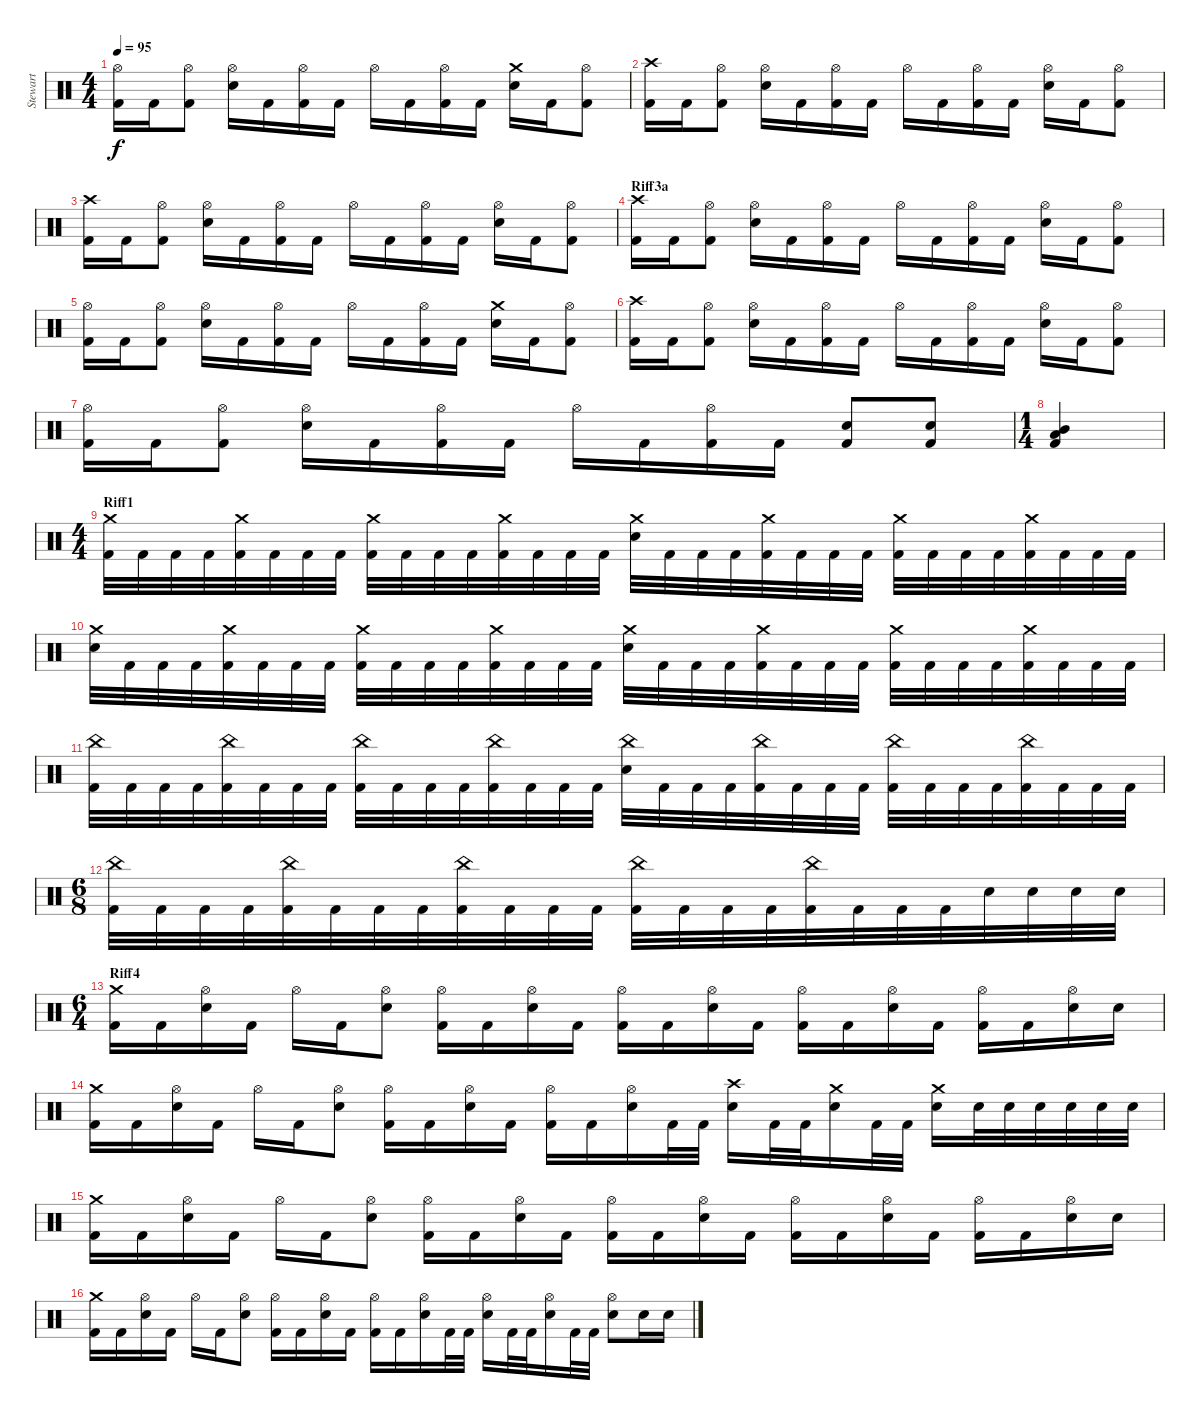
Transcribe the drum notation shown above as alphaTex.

\track ("Stewart" "Stewart") {instrument percussion}
\staff {score}
\articulation defaults
\ts (4 4)
\tempo 95
\clef neutral
\ks c
("Hi-Hat (open)" "Kick (hit) 2").16{dy f} "Kick (hit) 2".16 ("Hi-Hat (open)" "Kick (hit) 2").8 ("Hi-Hat (open)" "Electric Snare (hit)").16 "Kick (hit) 2".16 ("Hi-Hat (open)" "Kick (hit) 2").16 "Kick (hit) 2".16 "Hi-Hat (open)".16 "Kick (hit) 2".16 ("Hi-Hat (open)" "Kick (hit) 2").16 "Kick (hit) 2".16 ("Crash medium (hit)" "Electric Snare (hit)").16 "Kick (hit) 2".16 ("Hi-Hat (open)" "Kick (hit) 2").8 |
("Crash high (hit)" "Kick (hit) 2").16 "Kick (hit) 2".16 ("Hi-Hat (open)" "Kick (hit) 2").8 ("Hi-Hat (open)" "Electric Snare (hit)").16 "Kick (hit) 2".16 ("Hi-Hat (open)" "Kick (hit) 2").16 "Kick (hit) 2".16 "Hi-Hat (open)".16 "Kick (hit) 2".16 ("Hi-Hat (open)" "Kick (hit) 2").16 "Kick (hit) 2".16 ("Hi-Hat (open)" "Electric Snare (hit)").16 "Kick (hit) 2".16 ("Hi-Hat (open)" "Kick (hit) 2").8 |
("Crash high (hit)" "Kick (hit) 2").16 "Kick (hit) 2".16 ("Hi-Hat (open)" "Kick (hit) 2").8 ("Hi-Hat (open)" "Electric Snare (hit)").16 "Kick (hit) 2".16 ("Hi-Hat (open)" "Kick (hit) 2").16 "Kick (hit) 2".16 "Hi-Hat (open)".16 "Kick (hit) 2".16 ("Hi-Hat (open)" "Kick (hit) 2").16 "Kick (hit) 2".16 ("Hi-Hat (open)" "Electric Snare (hit)").16 "Kick (hit) 2".16 ("Hi-Hat (open)" "Kick (hit) 2").8 |
\section ("" "Riff3a")
("Crash high (hit)" "Kick (hit) 2").16 "Kick (hit) 2".16 ("Hi-Hat (open)" "Kick (hit) 2").8 ("Hi-Hat (open)" "Electric Snare (hit)").16 "Kick (hit) 2".16 ("Hi-Hat (open)" "Kick (hit) 2").16 "Kick (hit) 2".16 "Hi-Hat (open)".16 "Kick (hit) 2".16 ("Hi-Hat (open)" "Kick (hit) 2").16 "Kick (hit) 2".16 ("Hi-Hat (open)" "Electric Snare (hit)").16 "Kick (hit) 2".16 ("Hi-Hat (open)" "Kick (hit) 2").8 |
("Hi-Hat (open)" "Kick (hit) 2").16 "Kick (hit) 2".16 ("Hi-Hat (open)" "Kick (hit) 2").8 ("Hi-Hat (open)" "Electric Snare (hit)").16 "Kick (hit) 2".16 ("Hi-Hat (open)" "Kick (hit) 2").16 "Kick (hit) 2".16 "Hi-Hat (open)".16 "Kick (hit) 2".16 ("Hi-Hat (open)" "Kick (hit) 2").16 "Kick (hit) 2".16 ("Crash medium (hit)" "Electric Snare (hit)").16 "Kick (hit) 2".16 ("Hi-Hat (open)" "Kick (hit) 2").8 |
("Crash high (hit)" "Kick (hit) 2").16 "Kick (hit) 2".16 ("Hi-Hat (open)" "Kick (hit) 2").8 ("Hi-Hat (open)" "Electric Snare (hit)").16 "Kick (hit) 2".16 ("Hi-Hat (open)" "Kick (hit) 2").16 "Kick (hit) 2".16 "Hi-Hat (open)".16 "Kick (hit) 2".16 ("Hi-Hat (open)" "Kick (hit) 2").16 "Kick (hit) 2".16 ("Hi-Hat (open)" "Electric Snare (hit)").16 "Kick (hit) 2".16 ("Hi-Hat (open)" "Kick (hit) 2").8 |
("Hi-Hat (open)" "Kick (hit) 2").16 "Kick (hit) 2".16 ("Hi-Hat (open)" "Kick (hit) 2").8 ("Hi-Hat (open)" "Electric Snare (hit)").16 "Kick (hit) 2".16 ("Hi-Hat (open)" "Kick (hit) 2").16 "Kick (hit) 2".16 "Hi-Hat (open)".16 "Kick (hit) 2".16 ("Hi-Hat (open)" "Kick (hit) 2").16 "Kick (hit) 2".16 ("Electric Snare (hit)" "Kick (hit) 2").8 ("Electric Snare (hit)" "Kick (hit) 2").8 |
\ts (1 4)
("Mid Tom (hit)" "Low Tom (hit)" "Kick (hit) 2").4 |
\ts (4 4)
\section ("" "Riff1")
("Crash medium (hit)" "Kick (hit) 2").32 "Kick (hit) 2".32 "Kick (hit) 2".32 "Kick (hit) 2".32 ("Crash medium (hit)" "Kick (hit) 2").32 "Kick (hit) 2".32 "Kick (hit) 2".32 "Kick (hit) 2".32 ("Crash medium (hit)" "Kick (hit) 2").32 "Kick (hit) 2".32 "Kick (hit) 2".32 "Kick (hit) 2".32 ("Crash medium (hit)" "Kick (hit) 2").32 "Kick (hit) 2".32 "Kick (hit) 2".32 "Kick (hit) 2".32 ("Crash medium (hit)" "Electric Snare (hit)").32 "Kick (hit) 2".32 "Kick (hit) 2".32 "Kick (hit) 2".32 ("Crash medium (hit)" "Kick (hit) 2").32 "Kick (hit) 2".32 "Kick (hit) 2".32 "Kick (hit) 2".32 ("Crash medium (hit)" "Kick (hit) 2").32 "Kick (hit) 2".32 "Kick (hit) 2".32 "Kick (hit) 2".32 ("Crash medium (hit)" "Kick (hit) 2").32 "Kick (hit) 2".32 "Kick (hit) 2".32 "Kick (hit) 2".32 |
("Crash medium (hit)" "Electric Snare (hit)").32 "Kick (hit) 2".32 "Kick (hit) 2".32 "Kick (hit) 2".32 ("Crash medium (hit)" "Kick (hit) 2").32 "Kick (hit) 2".32 "Kick (hit) 2".32 "Kick (hit) 2".32 ("Crash medium (hit)" "Kick (hit) 2").32 "Kick (hit) 2".32 "Kick (hit) 2".32 "Kick (hit) 2".32 ("Crash medium (hit)" "Kick (hit) 2").32 "Kick (hit) 2".32 "Kick (hit) 2".32 "Kick (hit) 2".32 ("Crash medium (hit)" "Electric Snare (hit)").32 "Kick (hit) 2".32 "Kick (hit) 2".32 "Kick (hit) 2".32 ("Crash medium (hit)" "Kick (hit) 2").32 "Kick (hit) 2".32 "Kick (hit) 2".32 "Kick (hit) 2".32 ("Crash medium (hit)" "Kick (hit) 2").32 "Kick (hit) 2".32 "Kick (hit) 2".32 "Kick (hit) 2".32 ("Crash medium (hit)" "Kick (hit) 2").32 "Kick (hit) 2".32 "Kick (hit) 2".32 "Kick (hit) 2".32 |
("China (hit)" "Kick (hit) 2").32 "Kick (hit) 2".32 "Kick (hit) 2".32 "Kick (hit) 2".32 ("China (hit)" "Kick (hit) 2").32 "Kick (hit) 2".32 "Kick (hit) 2".32 "Kick (hit) 2".32 ("China (hit)" "Kick (hit) 2").32 "Kick (hit) 2".32 "Kick (hit) 2".32 "Kick (hit) 2".32 ("China (hit)" "Kick (hit) 2").32 "Kick (hit) 2".32 "Kick (hit) 2".32 "Kick (hit) 2".32 ("China (hit)" "Electric Snare (hit)").32 "Kick (hit) 2".32 "Kick (hit) 2".32 "Kick (hit) 2".32 ("China (hit)" "Kick (hit) 2").32 "Kick (hit) 2".32 "Kick (hit) 2".32 "Kick (hit) 2".32 ("China (hit)" "Kick (hit) 2").32 "Kick (hit) 2".32 "Kick (hit) 2".32 "Kick (hit) 2".32 ("China (hit)" "Kick (hit) 2").32 "Kick (hit) 2".32 "Kick (hit) 2".32 "Kick (hit) 2".32 |
\ts (6 8)
("China (hit)" "Kick (hit) 2").32 "Kick (hit) 2".32 "Kick (hit) 2".32 "Kick (hit) 2".32 ("China (hit)" "Kick (hit) 2").32 "Kick (hit) 2".32 "Kick (hit) 2".32 "Kick (hit) 2".32 ("China (hit)" "Kick (hit) 2").32 "Kick (hit) 2".32 "Kick (hit) 2".32 "Kick (hit) 2".32 ("China (hit)" "Kick (hit) 2").32 "Kick (hit) 2".32 "Kick (hit) 2".32 "Kick (hit) 2".32 ("China (hit)" "Kick (hit) 2").32 "Kick (hit) 2".32 "Kick (hit) 2".32 "Kick (hit) 2".32 "Electric Snare (hit)".32 "Electric Snare (hit)".32 "Electric Snare (hit)".32 "Electric Snare (hit)".32 |
\ts (6 4)
\section ("" "Riff4")
("Crash medium (hit)" "Kick (hit) 2").16 "Kick (hit) 2".16 ("Hi-Hat (open)" "Electric Snare (hit)").16 "Kick (hit) 2".16 "Hi-Hat (open)".16 "Kick (hit) 2".16 ("Hi-Hat (open)" "Electric Snare (hit)").8 ("Hi-Hat (open)" "Kick (hit) 2").16 "Kick (hit) 2".16 ("Hi-Hat (open)" "Electric Snare (hit)").16 "Kick (hit) 2".16 ("Hi-Hat (open)" "Kick (hit) 2").16 "Kick (hit) 2".16 ("Hi-Hat (open)" "Electric Snare (hit)").16 "Kick (hit) 2".16 ("Hi-Hat (open)" "Kick (hit) 2").16 "Kick (hit) 2".16 ("Hi-Hat (open)" "Electric Snare (hit)").16 "Kick (hit) 2".16 ("Hi-Hat (open)" "Kick (hit) 2").16 "Kick (hit) 2".16 ("Hi-Hat (open)" "Electric Snare (hit)").16 "Electric Snare (hit)".16 |
("Crash medium (hit)" "Kick (hit) 2").16 "Kick (hit) 2".16 ("Hi-Hat (open)" "Electric Snare (hit)").16 "Kick (hit) 2".16 "Hi-Hat (open)".16 "Kick (hit) 2".16 ("Hi-Hat (open)" "Electric Snare (hit)").8 ("Hi-Hat (open)" "Kick (hit) 2").16 "Kick (hit) 2".16 ("Hi-Hat (open)" "Electric Snare (hit)").16 "Kick (hit) 2".16 ("Hi-Hat (open)" "Kick (hit) 2").16 "Kick (hit) 2".16 ("Hi-Hat (open)" "Electric Snare (hit)").16 "Kick (hit) 2".32 "Kick (hit) 2".32 ("Crash high (hit)" "Electric Snare (hit)").16 "Kick (hit) 2".32 "Kick (hit) 2".32 ("Crash medium (hit)" "Electric Snare (hit)").16 "Kick (hit) 2".32 "Kick (hit) 2".32 ("Crash medium (hit)" "Electric Snare (hit)").16 "Electric Snare (hit)".32 "Electric Snare (hit)".32 "Electric Snare (hit)".32 "Electric Snare (hit)".32 "Electric Snare (hit)".32 "Electric Snare (hit)".32 |
("Crash medium (hit)" "Kick (hit) 2").16 "Kick (hit) 2".16 ("Hi-Hat (open)" "Electric Snare (hit)").16 "Kick (hit) 2".16 "Hi-Hat (open)".16 "Kick (hit) 2".16 ("Hi-Hat (open)" "Electric Snare (hit)").8 ("Hi-Hat (open)" "Kick (hit) 2").16 "Kick (hit) 2".16 ("Hi-Hat (open)" "Electric Snare (hit)").16 "Kick (hit) 2".16 ("Hi-Hat (open)" "Kick (hit) 2").16 "Kick (hit) 2".16 ("Hi-Hat (open)" "Electric Snare (hit)").16 "Kick (hit) 2".16 ("Hi-Hat (open)" "Kick (hit) 2").16 "Kick (hit) 2".16 ("Hi-Hat (open)" "Electric Snare (hit)").16 "Kick (hit) 2".16 ("Hi-Hat (open)" "Kick (hit) 2").16 "Kick (hit) 2".16 ("Hi-Hat (open)" "Electric Snare (hit)").16 "Electric Snare (hit)".16 |
("Crash medium (hit)" "Kick (hit) 2").16 "Kick (hit) 2".16 ("Hi-Hat (open)" "Electric Snare (hit)").16 "Kick (hit) 2".16 "Hi-Hat (open)".16 "Kick (hit) 2".16 ("Hi-Hat (open)" "Electric Snare (hit)").8 ("Hi-Hat (open)" "Kick (hit) 2").16 "Kick (hit) 2".16 ("Hi-Hat (open)" "Electric Snare (hit)").16 "Kick (hit) 2".16 ("Hi-Hat (open)" "Kick (hit) 2").16 "Kick (hit) 2".16 ("Hi-Hat (open)" "Electric Snare (hit)").16 "Kick (hit) 2".32 "Kick (hit) 2".32 ("Hi-Hat (open)" "Electric Snare (hit)").16 "Kick (hit) 2".32 "Kick (hit) 2".32 ("Hi-Hat (open)" "Electric Snare (hit)").16 "Kick (hit) 2".32 "Kick (hit) 2".32 ("Hi-Hat (open)" "Electric Snare (hit)").8 "Electric Snare (hit)".16 "Electric Snare (hit)".16
